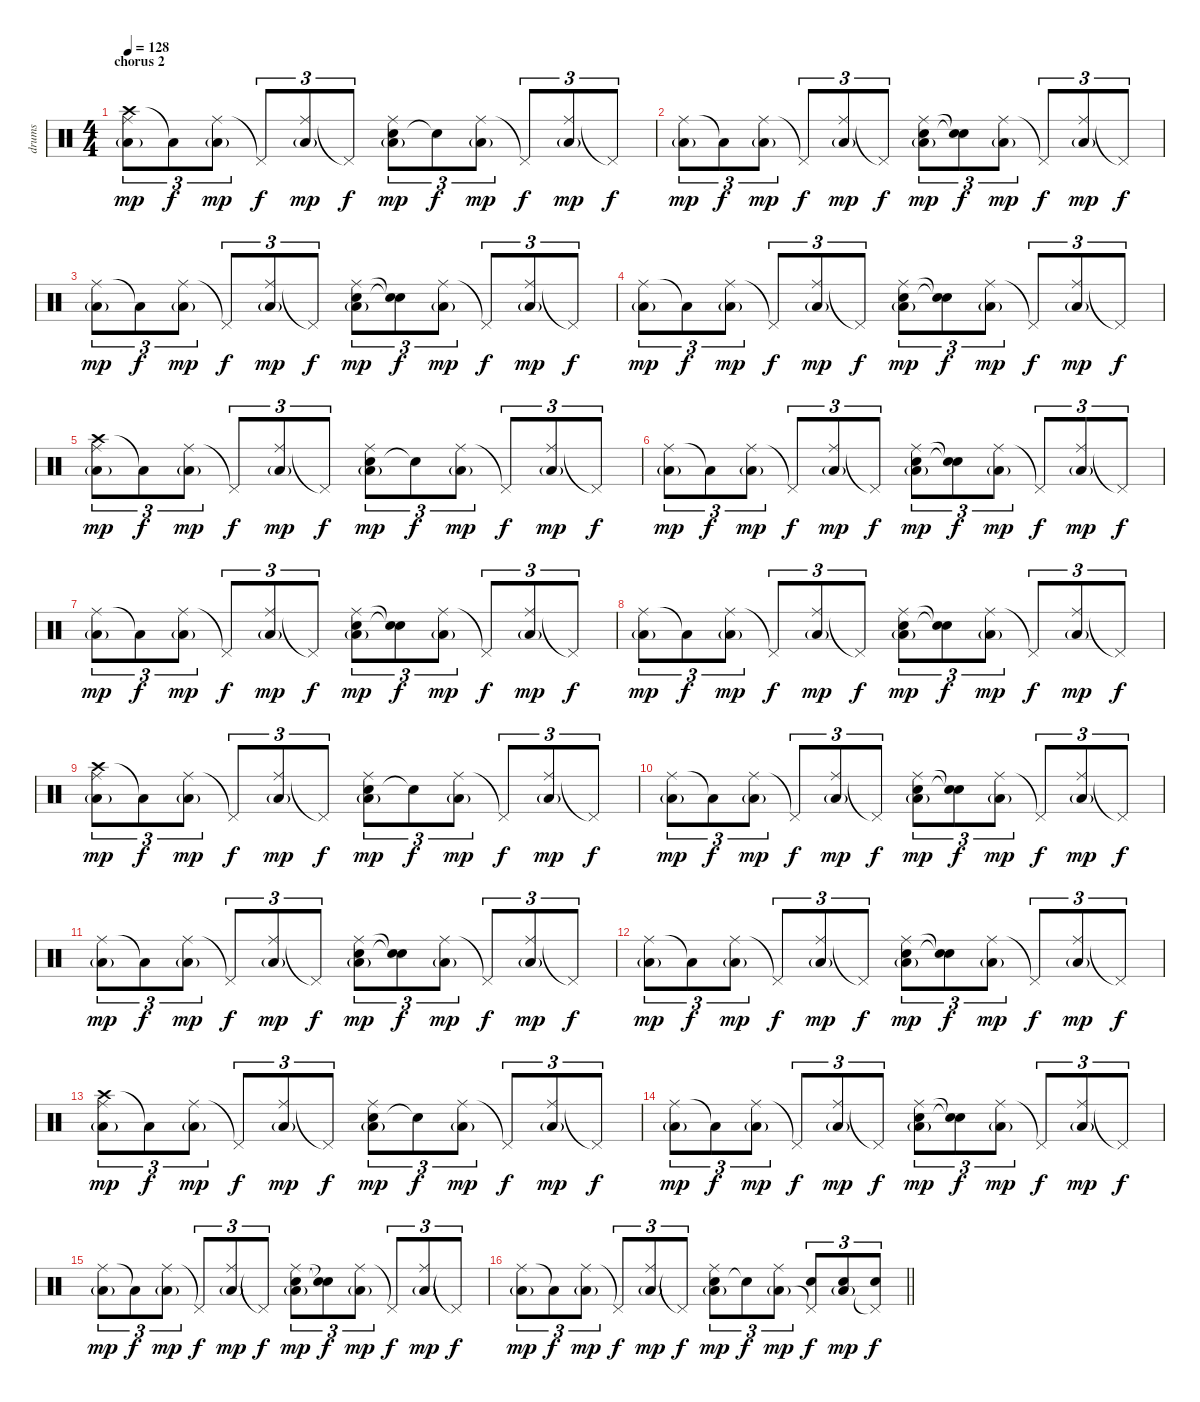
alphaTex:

\track ("drums" "drums") {instrument percussion}
\staff {score}
\articulation defaults
\ts (4 4)
\section ("" "chorus 2")
\tempo 128
\clef neutral
\ks c
("Crash high (hit)" "Ride (middle)" "Low Floor Tom (hit)"{g}).8{tu (3 2) dy mp} "Low Floor Tom (hit)"{t}.8{tu (3 2) dy f} ("Ride (middle)" "Low Floor Tom (hit)"{g}).8{tu (3 2) dy mp} "Pedal Hi-Hat (hit)"{t}.8{tu (3 2) dy f} ("Ride (middle)" "Low Floor Tom (hit)"{g}).8{tu (3 2) dy mp} "Pedal Hi-Hat (hit)"{t}.8{tu (3 2) dy f} ("Electric Snare (hit)" "Ride (middle)" "Low Floor Tom (hit)"{g}).8{tu (3 2) dy mp} "Electric Snare (hit)"{t}.8{tu (3 2) dy f} ("Ride (middle)" "Low Floor Tom (hit)"{g}).8{tu (3 2) dy mp} "Pedal Hi-Hat (hit)"{t}.8{tu (3 2) dy f} ("Ride (middle)" "Low Floor Tom (hit)"{g}).8{tu (3 2) dy mp} "Pedal Hi-Hat (hit)"{t}.8{tu (3 2) dy f} |
("Ride (middle)" "Low Floor Tom (hit)"{g}).8{tu (3 2) dy mp} "Low Floor Tom (hit)"{t}.8{tu (3 2) dy f} ("Ride (middle)" "Low Floor Tom (hit)"{g}).8{tu (3 2) dy mp} "Pedal Hi-Hat (hit)"{t}.8{tu (3 2) dy f} ("Ride (middle)" "Low Floor Tom (hit)"{g}).8{tu (3 2) dy mp} "Pedal Hi-Hat (hit)"{t}.8{tu (3 2) dy f} ("Electric Snare (hit)" "Ride (middle)" "Low Floor Tom (hit)"{g}).8{tu (3 2) dy mp} ("Electric Snare (hit)"{t} "Snare (hit)"{t}).8{tu (3 2) dy f} ("Ride (middle)" "Low Floor Tom (hit)"{g}).8{tu (3 2) dy mp} "Pedal Hi-Hat (hit)"{t}.8{tu (3 2) dy f} ("Ride (middle)" "Low Floor Tom (hit)"{g}).8{tu (3 2) dy mp} "Pedal Hi-Hat (hit)"{t}.8{tu (3 2) dy f} |
("Ride (middle)" "Low Floor Tom (hit)"{g}).8{tu (3 2) dy mp} "Low Floor Tom (hit)"{t}.8{tu (3 2) dy f} ("Ride (middle)" "Low Floor Tom (hit)"{g}).8{tu (3 2) dy mp} "Pedal Hi-Hat (hit)"{t}.8{tu (3 2) dy f} ("Ride (middle)" "Low Floor Tom (hit)"{g}).8{tu (3 2) dy mp} "Pedal Hi-Hat (hit)"{t}.8{tu (3 2) dy f} ("Electric Snare (hit)" "Ride (middle)" "Low Floor Tom (hit)"{g}).8{tu (3 2) dy mp} ("Electric Snare (hit)"{t} "Snare (hit)"{t}).8{tu (3 2) dy f} ("Ride (middle)" "Low Floor Tom (hit)"{g}).8{tu (3 2) dy mp} "Pedal Hi-Hat (hit)"{t}.8{tu (3 2) dy f} ("Ride (middle)" "Low Floor Tom (hit)"{g}).8{tu (3 2) dy mp} "Pedal Hi-Hat (hit)"{t}.8{tu (3 2) dy f} |
("Ride (middle)" "Low Floor Tom (hit)"{g}).8{tu (3 2) dy mp} "Low Floor Tom (hit)"{t}.8{tu (3 2) dy f} ("Ride (middle)" "Low Floor Tom (hit)"{g}).8{tu (3 2) dy mp} "Pedal Hi-Hat (hit)"{t}.8{tu (3 2) dy f} ("Ride (middle)" "Low Floor Tom (hit)"{g}).8{tu (3 2) dy mp} "Pedal Hi-Hat (hit)"{t}.8{tu (3 2) dy f} ("Electric Snare (hit)" "Ride (middle)" "Low Floor Tom (hit)"{g}).8{tu (3 2) dy mp} ("Electric Snare (hit)"{t} "Snare (hit)"{t}).8{tu (3 2) dy f} ("Ride (middle)" "Low Floor Tom (hit)"{g}).8{tu (3 2) dy mp} "Pedal Hi-Hat (hit)"{t}.8{tu (3 2) dy f} ("Ride (middle)" "Low Floor Tom (hit)"{g}).8{tu (3 2) dy mp} "Pedal Hi-Hat (hit)"{t}.8{tu (3 2) dy f} |
("Crash high (hit)" "Ride (middle)" "Low Floor Tom (hit)"{g}).8{tu (3 2) dy mp} "Low Floor Tom (hit)"{t}.8{tu (3 2) dy f} ("Ride (middle)" "Low Floor Tom (hit)"{g}).8{tu (3 2) dy mp} "Pedal Hi-Hat (hit)"{t}.8{tu (3 2) dy f} ("Ride (middle)" "Low Floor Tom (hit)"{g}).8{tu (3 2) dy mp} "Pedal Hi-Hat (hit)"{t}.8{tu (3 2) dy f} ("Electric Snare (hit)" "Ride (middle)" "Low Floor Tom (hit)"{g}).8{tu (3 2) dy mp} "Electric Snare (hit)"{t}.8{tu (3 2) dy f} ("Ride (middle)" "Low Floor Tom (hit)"{g}).8{tu (3 2) dy mp} "Pedal Hi-Hat (hit)"{t}.8{tu (3 2) dy f} ("Ride (middle)" "Low Floor Tom (hit)"{g}).8{tu (3 2) dy mp} "Pedal Hi-Hat (hit)"{t}.8{tu (3 2) dy f} |
("Ride (middle)" "Low Floor Tom (hit)"{g}).8{tu (3 2) dy mp} "Low Floor Tom (hit)"{t}.8{tu (3 2) dy f} ("Ride (middle)" "Low Floor Tom (hit)"{g}).8{tu (3 2) dy mp} "Pedal Hi-Hat (hit)"{t}.8{tu (3 2) dy f} ("Ride (middle)" "Low Floor Tom (hit)"{g}).8{tu (3 2) dy mp} "Pedal Hi-Hat (hit)"{t}.8{tu (3 2) dy f} ("Electric Snare (hit)" "Ride (middle)" "Low Floor Tom (hit)"{g}).8{tu (3 2) dy mp} ("Electric Snare (hit)"{t} "Snare (hit)"{t}).8{tu (3 2) dy f} ("Ride (middle)" "Low Floor Tom (hit)"{g}).8{tu (3 2) dy mp} "Pedal Hi-Hat (hit)"{t}.8{tu (3 2) dy f} ("Ride (middle)" "Low Floor Tom (hit)"{g}).8{tu (3 2) dy mp} "Pedal Hi-Hat (hit)"{t}.8{tu (3 2) dy f} |
("Ride (middle)" "Low Floor Tom (hit)"{g}).8{tu (3 2) dy mp} "Low Floor Tom (hit)"{t}.8{tu (3 2) dy f} ("Ride (middle)" "Low Floor Tom (hit)"{g}).8{tu (3 2) dy mp} "Pedal Hi-Hat (hit)"{t}.8{tu (3 2) dy f} ("Ride (middle)" "Low Floor Tom (hit)"{g}).8{tu (3 2) dy mp} "Pedal Hi-Hat (hit)"{t}.8{tu (3 2) dy f} ("Electric Snare (hit)" "Ride (middle)" "Low Floor Tom (hit)"{g}).8{tu (3 2) dy mp} ("Electric Snare (hit)"{t} "Snare (hit)"{t}).8{tu (3 2) dy f} ("Ride (middle)" "Low Floor Tom (hit)"{g}).8{tu (3 2) dy mp} "Pedal Hi-Hat (hit)"{t}.8{tu (3 2) dy f} ("Ride (middle)" "Low Floor Tom (hit)"{g}).8{tu (3 2) dy mp} "Pedal Hi-Hat (hit)"{t}.8{tu (3 2) dy f} |
("Ride (middle)" "Low Floor Tom (hit)"{g}).8{tu (3 2) dy mp} "Low Floor Tom (hit)"{t}.8{tu (3 2) dy f} ("Ride (middle)" "Low Floor Tom (hit)"{g}).8{tu (3 2) dy mp} "Pedal Hi-Hat (hit)"{t}.8{tu (3 2) dy f} ("Ride (middle)" "Low Floor Tom (hit)"{g}).8{tu (3 2) dy mp} "Pedal Hi-Hat (hit)"{t}.8{tu (3 2) dy f} ("Electric Snare (hit)" "Ride (middle)" "Low Floor Tom (hit)"{g}).8{tu (3 2) dy mp} ("Electric Snare (hit)"{t} "Snare (hit)"{t}).8{tu (3 2) dy f} ("Ride (middle)" "Low Floor Tom (hit)"{g}).8{tu (3 2) dy mp} "Pedal Hi-Hat (hit)"{t}.8{tu (3 2) dy f} ("Ride (middle)" "Low Floor Tom (hit)"{g}).8{tu (3 2) dy mp} "Pedal Hi-Hat (hit)"{t}.8{tu (3 2) dy f} |
("Crash high (hit)" "Ride (middle)" "Low Floor Tom (hit)"{g}).8{tu (3 2) dy mp} "Low Floor Tom (hit)"{t}.8{tu (3 2) dy f} ("Ride (middle)" "Low Floor Tom (hit)"{g}).8{tu (3 2) dy mp} "Pedal Hi-Hat (hit)"{t}.8{tu (3 2) dy f} ("Ride (middle)" "Low Floor Tom (hit)"{g}).8{tu (3 2) dy mp} "Pedal Hi-Hat (hit)"{t}.8{tu (3 2) dy f} ("Electric Snare (hit)" "Ride (middle)" "Low Floor Tom (hit)"{g}).8{tu (3 2) dy mp} "Electric Snare (hit)"{t}.8{tu (3 2) dy f} ("Ride (middle)" "Low Floor Tom (hit)"{g}).8{tu (3 2) dy mp} "Pedal Hi-Hat (hit)"{t}.8{tu (3 2) dy f} ("Ride (middle)" "Low Floor Tom (hit)"{g}).8{tu (3 2) dy mp} "Pedal Hi-Hat (hit)"{t}.8{tu (3 2) dy f} |
("Ride (middle)" "Low Floor Tom (hit)"{g}).8{tu (3 2) dy mp} "Low Floor Tom (hit)"{t}.8{tu (3 2) dy f} ("Ride (middle)" "Low Floor Tom (hit)"{g}).8{tu (3 2) dy mp} "Pedal Hi-Hat (hit)"{t}.8{tu (3 2) dy f} ("Ride (middle)" "Low Floor Tom (hit)"{g}).8{tu (3 2) dy mp} "Pedal Hi-Hat (hit)"{t}.8{tu (3 2) dy f} ("Electric Snare (hit)" "Ride (middle)" "Low Floor Tom (hit)"{g}).8{tu (3 2) dy mp} ("Electric Snare (hit)"{t} "Snare (hit)"{t}).8{tu (3 2) dy f} ("Ride (middle)" "Low Floor Tom (hit)"{g}).8{tu (3 2) dy mp} "Pedal Hi-Hat (hit)"{t}.8{tu (3 2) dy f} ("Ride (middle)" "Low Floor Tom (hit)"{g}).8{tu (3 2) dy mp} "Pedal Hi-Hat (hit)"{t}.8{tu (3 2) dy f} |
("Ride (middle)" "Low Floor Tom (hit)"{g}).8{tu (3 2) dy mp} "Low Floor Tom (hit)"{t}.8{tu (3 2) dy f} ("Ride (middle)" "Low Floor Tom (hit)"{g}).8{tu (3 2) dy mp} "Pedal Hi-Hat (hit)"{t}.8{tu (3 2) dy f} ("Ride (middle)" "Low Floor Tom (hit)"{g}).8{tu (3 2) dy mp} "Pedal Hi-Hat (hit)"{t}.8{tu (3 2) dy f} ("Electric Snare (hit)" "Ride (middle)" "Low Floor Tom (hit)"{g}).8{tu (3 2) dy mp} ("Electric Snare (hit)"{t} "Snare (hit)"{t}).8{tu (3 2) dy f} ("Ride (middle)" "Low Floor Tom (hit)"{g}).8{tu (3 2) dy mp} "Pedal Hi-Hat (hit)"{t}.8{tu (3 2) dy f} ("Ride (middle)" "Low Floor Tom (hit)"{g}).8{tu (3 2) dy mp} "Pedal Hi-Hat (hit)"{t}.8{tu (3 2) dy f} |
("Ride (middle)" "Low Floor Tom (hit)"{g}).8{tu (3 2) dy mp} "Low Floor Tom (hit)"{t}.8{tu (3 2) dy f} ("Ride (middle)" "Low Floor Tom (hit)"{g}).8{tu (3 2) dy mp} "Pedal Hi-Hat (hit)"{t}.8{tu (3 2) dy f} ("Ride (middle)" "Low Floor Tom (hit)"{g}).8{tu (3 2) dy mp} "Pedal Hi-Hat (hit)"{t}.8{tu (3 2) dy f} ("Electric Snare (hit)" "Ride (middle)" "Low Floor Tom (hit)"{g}).8{tu (3 2) dy mp} ("Electric Snare (hit)"{t} "Snare (hit)"{t}).8{tu (3 2) dy f} ("Ride (middle)" "Low Floor Tom (hit)"{g}).8{tu (3 2) dy mp} "Pedal Hi-Hat (hit)"{t}.8{tu (3 2) dy f} ("Ride (middle)" "Low Floor Tom (hit)"{g}).8{tu (3 2) dy mp} "Pedal Hi-Hat (hit)"{t}.8{tu (3 2) dy f} |
("Crash high (hit)" "Ride (middle)" "Low Floor Tom (hit)"{g}).8{tu (3 2) dy mp} "Low Floor Tom (hit)"{t}.8{tu (3 2) dy f} ("Ride (middle)" "Low Floor Tom (hit)"{g}).8{tu (3 2) dy mp} "Pedal Hi-Hat (hit)"{t}.8{tu (3 2) dy f} ("Ride (middle)" "Low Floor Tom (hit)"{g}).8{tu (3 2) dy mp} "Pedal Hi-Hat (hit)"{t}.8{tu (3 2) dy f} ("Electric Snare (hit)" "Ride (middle)" "Low Floor Tom (hit)"{g}).8{tu (3 2) dy mp} "Electric Snare (hit)"{t}.8{tu (3 2) dy f} ("Ride (middle)" "Low Floor Tom (hit)"{g}).8{tu (3 2) dy mp} "Pedal Hi-Hat (hit)"{t}.8{tu (3 2) dy f} ("Ride (middle)" "Low Floor Tom (hit)"{g}).8{tu (3 2) dy mp} "Pedal Hi-Hat (hit)"{t}.8{tu (3 2) dy f} |
("Ride (middle)" "Low Floor Tom (hit)"{g}).8{tu (3 2) dy mp} "Low Floor Tom (hit)"{t}.8{tu (3 2) dy f} ("Ride (middle)" "Low Floor Tom (hit)"{g}).8{tu (3 2) dy mp} "Pedal Hi-Hat (hit)"{t}.8{tu (3 2) dy f} ("Ride (middle)" "Low Floor Tom (hit)"{g}).8{tu (3 2) dy mp} "Pedal Hi-Hat (hit)"{t}.8{tu (3 2) dy f} ("Electric Snare (hit)" "Ride (middle)" "Low Floor Tom (hit)"{g}).8{tu (3 2) dy mp} ("Electric Snare (hit)"{t} "Snare (hit)"{t}).8{tu (3 2) dy f} ("Ride (middle)" "Low Floor Tom (hit)"{g}).8{tu (3 2) dy mp} "Pedal Hi-Hat (hit)"{t}.8{tu (3 2) dy f} ("Ride (middle)" "Low Floor Tom (hit)"{g}).8{tu (3 2) dy mp} "Pedal Hi-Hat (hit)"{t}.8{tu (3 2) dy f} |
("Ride (middle)" "Low Floor Tom (hit)"{g}).8{tu (3 2) dy mp} "Low Floor Tom (hit)"{t}.8{tu (3 2) dy f} ("Ride (middle)" "Low Floor Tom (hit)"{g}).8{tu (3 2) dy mp} "Pedal Hi-Hat (hit)"{t}.8{tu (3 2) dy f} ("Ride (middle)" "Low Floor Tom (hit)"{g}).8{tu (3 2) dy mp} "Pedal Hi-Hat (hit)"{t}.8{tu (3 2) dy f} ("Electric Snare (hit)" "Ride (middle)" "Low Floor Tom (hit)"{g}).8{tu (3 2) dy mp} ("Electric Snare (hit)"{t} "Snare (hit)"{t}).8{tu (3 2) dy f} ("Ride (middle)" "Low Floor Tom (hit)"{g}).8{tu (3 2) dy mp} "Pedal Hi-Hat (hit)"{t}.8{tu (3 2) dy f} ("Ride (middle)" "Low Floor Tom (hit)"{g}).8{tu (3 2) dy mp} "Pedal Hi-Hat (hit)"{t}.8{tu (3 2) dy f} |
\barLineRight lightlight
("Ride (middle)" "Low Floor Tom (hit)"{g}).8{tu (3 2) dy mp} "Low Floor Tom (hit)"{t}.8{tu (3 2) dy f} ("Ride (middle)" "Low Floor Tom (hit)"{g}).8{tu (3 2) dy mp} "Pedal Hi-Hat (hit)"{t}.8{tu (3 2) dy f} ("Ride (middle)" "Low Floor Tom (hit)"{g}).8{tu (3 2) dy mp} "Pedal Hi-Hat (hit)"{t}.8{tu (3 2) dy f} ("Electric Snare (hit)" "Ride (middle)" "Low Floor Tom (hit)"{g}).8{tu (3 2) dy mp} "Snare (hit)"{t}.8{tu (3 2) dy f} ("Ride (middle)" "Low Floor Tom (hit)"{g}).8{tu (3 2) dy mp} ("Electric Snare (hit)" "Pedal Hi-Hat (hit)"{t}).8{tu (3 2) dy f} ("Electric Snare (hit)" "Low Floor Tom (hit)"{g}).8{tu (3 2) dy mp} ("Electric Snare (hit)" "Pedal Hi-Hat (hit)"{t}).8{tu (3 2) dy f}
